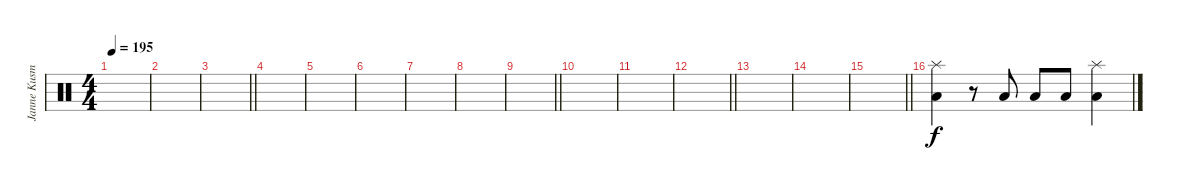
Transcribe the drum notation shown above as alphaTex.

\track ("Janne Kusmin" "Janne Kusm") {instrument percussion}
\staff {score}
\articulation defaults
\ts (4 4)
\tempo 195
\clef neutral
\ks c
|
|
\barLineRight lightlight
|
|
|
|
|
|
\barLineRight lightlight
|
|
|
\barLineRight lightlight
|
\section ("" "")
|
|
\barLineRight lightlight
|
("Splash (hit)" "Low Floor Tom (hit)").4 r.8 "Low Floor Tom (hit)".8 "Low Floor Tom (hit)".8 "Low Floor Tom (hit)".8 ("Splash (hit)" "Low Floor Tom (hit)").4
